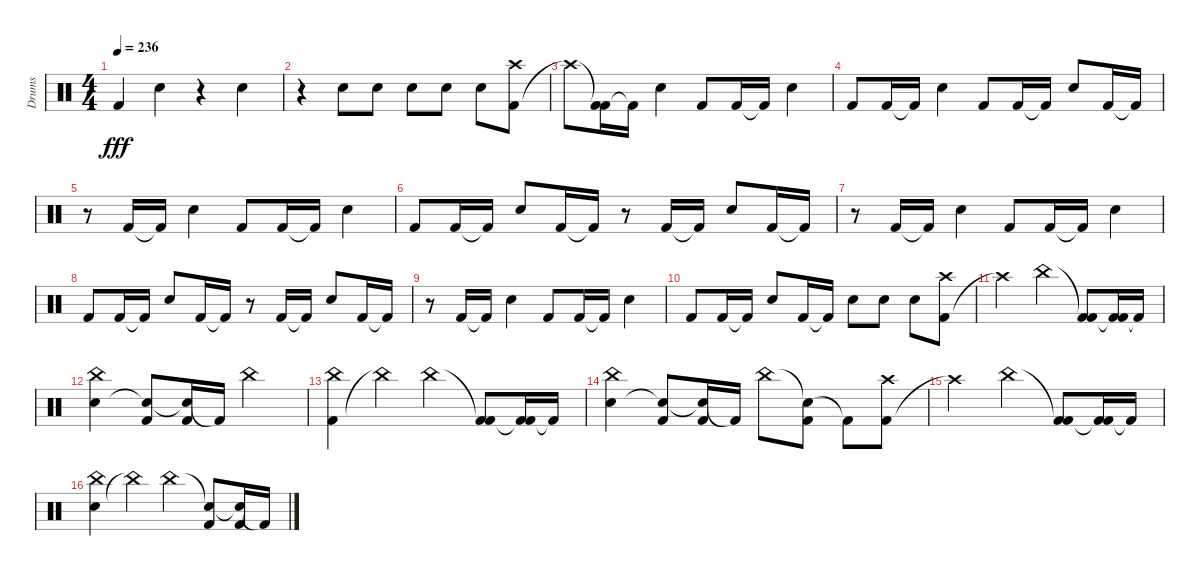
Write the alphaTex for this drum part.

\track ("Drums" "Drums") {instrument percussion}
\staff {score}
\articulation defaults
\ts (4 4)
\tempo 236
\clef neutral
\ks c "Kick (hit) 2".4{dy fff} "Snare (hit) 2".4
r.4 "Snare (hit) 2".4 |
r.4 "Snare (hit) 2".8 "Snare (hit) 2".8 "Snare (hit) 2".8 "Snare (hit) 2".8 "Snare (hit) 2".8 ("Kick (hit) 2" "Crash high (hit)").8 |
"Crash high (hit)"{t}.8 ("Kick (hit) 2"{t} "Kick (hit) 2").16 "Kick (hit) 2"{t}.16 "Snare (hit) 2".4 "Kick (hit) 2".8 "Kick (hit) 2".16 "Kick (hit) 2"{t}.16 "Snare (hit) 2".4 |
"Kick (hit) 2".8 "Kick (hit) 2".16 "Kick (hit) 2"{t}.16 "Snare (hit) 2".4 "Kick (hit) 2".8 "Kick (hit) 2".16 "Kick (hit) 2"{t}.16 "Snare (hit) 2".8 "Kick (hit) 2".16 "Kick (hit) 2"{t}.16 |
r.8 "Kick (hit) 2".16 "Kick (hit) 2"{t}.16 "Snare (hit) 2".4 "Kick (hit) 2".8 "Kick (hit) 2".16 "Kick (hit) 2"{t}.16 "Snare (hit) 2".4 |
"Kick (hit) 2".8 "Kick (hit) 2".16 "Kick (hit) 2"{t}.16 "Snare (hit) 2".8 "Kick (hit) 2".16 "Kick (hit) 2"{t}.16 r.8 "Kick (hit) 2".16 "Kick (hit) 2"{t}.16 "Snare (hit) 2".8 "Kick (hit) 2".16 "Kick (hit) 2"{t}.16 |
r.8 "Kick (hit) 2".16 "Kick (hit) 2"{t}.16 "Snare (hit) 2".4 "Kick (hit) 2".8 "Kick (hit) 2".16 "Kick (hit) 2"{t}.16 "Snare (hit) 2".4 |
"Kick (hit) 2".8 "Kick (hit) 2".16 "Kick (hit) 2"{t}.16 "Snare (hit) 2".8 "Kick (hit) 2".16 "Kick (hit) 2"{t}.16 r.8 "Kick (hit) 2".16 "Kick (hit) 2"{t}.16 "Snare (hit) 2".8 "Kick (hit) 2".16 "Kick (hit) 2"{t}.16 |
r.8 "Kick (hit) 2".16 "Kick (hit) 2"{t}.16 "Snare (hit) 2".4 "Kick (hit) 2".8 "Kick (hit) 2".16 "Kick (hit) 2"{t}.16 "Snare (hit) 2".4 |
"Kick (hit) 2".8 "Kick (hit) 2".16 "Kick (hit) 2"{t}.16 "Snare (hit) 2".8 "Kick (hit) 2".16 "Kick (hit) 2"{t}.16 "Snare (hit) 2".8 "Snare (hit) 2".8 "Snare (hit) 2".8 ("Kick (hit) 2" "Crash high (hit)").8 |
"Crash high (hit)"{t}.2 "China (hit)".4 ("Kick (hit) 2"{t} "Kick (hit) 2").8 ("Kick (hit) 2"{t} "Kick (hit) 2").16 "Kick (hit) 2"{t}.16 |
("Snare (hit) 2" "China (hit)").4 ("Snare (hit) 2"{t} "Kick (hit) 2").8 ("Snare (hit) 2"{t} "Kick (hit) 2").16 "Kick (hit) 2"{t}.16 "China (hit)".2 |
("Kick (hit) 2" "China (hit)").4 "China (hit)"{t}.4 "China (hit)".4 ("Kick (hit) 2"{t} "Kick (hit) 2").8 ("Kick (hit) 2"{t} "Kick (hit) 2").16 "Kick (hit) 2"{t}.16 |
("Snare (hit) 2" "China (hit)").4 ("Snare (hit) 2"{t} "Kick (hit) 2").8 ("Snare (hit) 2"{t} "Kick (hit) 2").16 "Kick (hit) 2"{t}.16 "China (hit)".8 ("Snare (hit) 2"{t} "Kick (hit) 2").8 "Kick (hit) 2"{t}.8 ("Kick (hit) 2" "Crash high (hit)").8 |
"Crash high (hit)"{t}.2 "China (hit)".4 ("Kick (hit) 2"{t} "Kick (hit) 2").8 ("Kick (hit) 2"{t} "Kick (hit) 2").16 "Kick (hit) 2"{t}.16 |
("Snare (hit) 2" "China (hit)").4 "China (hit)"{t}.4 "China (hit)".4 ("Snare (hit) 2"{t} "Kick (hit) 2").8 ("Snare (hit) 2"{t} "Kick (hit) 2").16 "Kick (hit) 2"{t}.16
